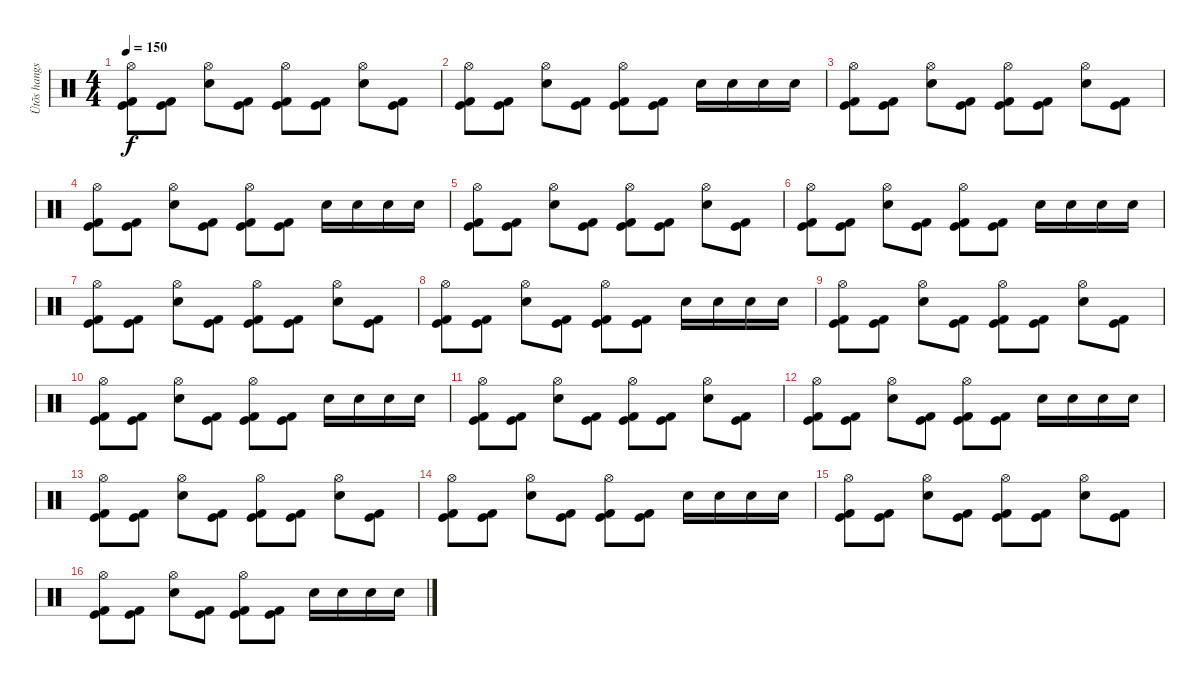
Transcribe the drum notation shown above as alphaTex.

\track ("Ütõs hangszer" "Ütõs hangs") {instrument percussion}
\staff {score}
\articulation defaults
\ts (4 4)
\tempo 150
\clef neutral
\ks c
("Hi-Hat (open)" "Kick (hit)" "Kick (hit) 2").8{dy f} ("Kick (hit)" "Kick (hit) 2").8 ("Hi-Hat (open)" "Electric Snare (hit)").8 ("Kick (hit)" "Kick (hit) 2").8 ("Hi-Hat (open)" "Kick (hit)" "Kick (hit) 2").8 ("Kick (hit)" "Kick (hit) 2").8 ("Hi-Hat (open)" "Electric Snare (hit)").8 ("Kick (hit)" "Kick (hit) 2").8 |
("Hi-Hat (open)" "Kick (hit)" "Kick (hit) 2").8 ("Kick (hit)" "Kick (hit) 2").8 ("Hi-Hat (open)" "Electric Snare (hit)").8 ("Kick (hit)" "Kick (hit) 2").8 ("Hi-Hat (open)" "Kick (hit)" "Kick (hit) 2").8 ("Kick (hit)" "Kick (hit) 2").8 "Electric Snare (hit)".16 "Electric Snare (hit)".16 "Electric Snare (hit)".16 "Electric Snare (hit)".16 |
("Hi-Hat (open)" "Kick (hit)" "Kick (hit) 2").8 ("Kick (hit)" "Kick (hit) 2").8 ("Hi-Hat (open)" "Electric Snare (hit)").8 ("Kick (hit)" "Kick (hit) 2").8 ("Hi-Hat (open)" "Kick (hit)" "Kick (hit) 2").8 ("Kick (hit)" "Kick (hit) 2").8 ("Hi-Hat (open)" "Electric Snare (hit)").8 ("Kick (hit)" "Kick (hit) 2").8 |
("Hi-Hat (open)" "Kick (hit)" "Kick (hit) 2").8 ("Kick (hit)" "Kick (hit) 2").8 ("Hi-Hat (open)" "Electric Snare (hit)").8 ("Kick (hit)" "Kick (hit) 2").8 ("Hi-Hat (open)" "Kick (hit)" "Kick (hit) 2").8 ("Kick (hit)" "Kick (hit) 2").8 "Electric Snare (hit)".16 "Electric Snare (hit)".16 "Electric Snare (hit)".16 "Electric Snare (hit)".16 |
("Hi-Hat (open)" "Kick (hit)" "Kick (hit) 2").8 ("Kick (hit)" "Kick (hit) 2").8 ("Hi-Hat (open)" "Electric Snare (hit)").8 ("Kick (hit)" "Kick (hit) 2").8 ("Hi-Hat (open)" "Kick (hit)" "Kick (hit) 2").8 ("Kick (hit)" "Kick (hit) 2").8 ("Hi-Hat (open)" "Electric Snare (hit)").8 ("Kick (hit)" "Kick (hit) 2").8 |
("Hi-Hat (open)" "Kick (hit)" "Kick (hit) 2").8 ("Kick (hit)" "Kick (hit) 2").8 ("Hi-Hat (open)" "Electric Snare (hit)").8 ("Kick (hit)" "Kick (hit) 2").8 ("Hi-Hat (open)" "Kick (hit)" "Kick (hit) 2").8 ("Kick (hit)" "Kick (hit) 2").8 "Electric Snare (hit)".16 "Electric Snare (hit)".16 "Electric Snare (hit)".16 "Electric Snare (hit)".16 |
("Hi-Hat (open)" "Kick (hit)" "Kick (hit) 2").8 ("Kick (hit)" "Kick (hit) 2").8 ("Hi-Hat (open)" "Electric Snare (hit)").8 ("Kick (hit)" "Kick (hit) 2").8 ("Hi-Hat (open)" "Kick (hit)" "Kick (hit) 2").8 ("Kick (hit)" "Kick (hit) 2").8 ("Hi-Hat (open)" "Electric Snare (hit)").8 ("Kick (hit)" "Kick (hit) 2").8 |
("Hi-Hat (open)" "Kick (hit)" "Kick (hit) 2").8 ("Kick (hit)" "Kick (hit) 2").8 ("Hi-Hat (open)" "Electric Snare (hit)").8 ("Kick (hit)" "Kick (hit) 2").8 ("Hi-Hat (open)" "Kick (hit)" "Kick (hit) 2").8 ("Kick (hit)" "Kick (hit) 2").8 "Electric Snare (hit)".16 "Electric Snare (hit)".16 "Electric Snare (hit)".16 "Electric Snare (hit)".16 |
("Hi-Hat (open)" "Kick (hit)" "Kick (hit) 2").8 ("Kick (hit)" "Kick (hit) 2").8 ("Hi-Hat (open)" "Electric Snare (hit)").8 ("Kick (hit)" "Kick (hit) 2").8 ("Hi-Hat (open)" "Kick (hit)" "Kick (hit) 2").8 ("Kick (hit)" "Kick (hit) 2").8 ("Hi-Hat (open)" "Electric Snare (hit)").8 ("Kick (hit)" "Kick (hit) 2").8 |
("Hi-Hat (open)" "Kick (hit)" "Kick (hit) 2").8 ("Kick (hit)" "Kick (hit) 2").8 ("Hi-Hat (open)" "Electric Snare (hit)").8 ("Kick (hit)" "Kick (hit) 2").8 ("Hi-Hat (open)" "Kick (hit)" "Kick (hit) 2").8 ("Kick (hit)" "Kick (hit) 2").8 "Electric Snare (hit)".16 "Electric Snare (hit)".16 "Electric Snare (hit)".16 "Electric Snare (hit)".16 |
("Hi-Hat (open)" "Kick (hit)" "Kick (hit) 2").8 ("Kick (hit)" "Kick (hit) 2").8 ("Hi-Hat (open)" "Electric Snare (hit)").8 ("Kick (hit)" "Kick (hit) 2").8 ("Hi-Hat (open)" "Kick (hit)" "Kick (hit) 2").8 ("Kick (hit)" "Kick (hit) 2").8 ("Hi-Hat (open)" "Electric Snare (hit)").8 ("Kick (hit)" "Kick (hit) 2").8 |
("Hi-Hat (open)" "Kick (hit)" "Kick (hit) 2").8 ("Kick (hit)" "Kick (hit) 2").8 ("Hi-Hat (open)" "Electric Snare (hit)").8 ("Kick (hit)" "Kick (hit) 2").8 ("Hi-Hat (open)" "Kick (hit)" "Kick (hit) 2").8 ("Kick (hit)" "Kick (hit) 2").8 "Electric Snare (hit)".16 "Electric Snare (hit)".16 "Electric Snare (hit)".16 "Electric Snare (hit)".16 |
("Hi-Hat (open)" "Kick (hit)" "Kick (hit) 2").8 ("Kick (hit)" "Kick (hit) 2").8 ("Hi-Hat (open)" "Electric Snare (hit)").8 ("Kick (hit)" "Kick (hit) 2").8 ("Hi-Hat (open)" "Kick (hit)" "Kick (hit) 2").8 ("Kick (hit)" "Kick (hit) 2").8 ("Hi-Hat (open)" "Electric Snare (hit)").8 ("Kick (hit)" "Kick (hit) 2").8 |
("Hi-Hat (open)" "Kick (hit)" "Kick (hit) 2").8 ("Kick (hit)" "Kick (hit) 2").8 ("Hi-Hat (open)" "Electric Snare (hit)").8 ("Kick (hit)" "Kick (hit) 2").8 ("Hi-Hat (open)" "Kick (hit)" "Kick (hit) 2").8 ("Kick (hit)" "Kick (hit) 2").8 "Electric Snare (hit)".16 "Electric Snare (hit)".16 "Electric Snare (hit)".16 "Electric Snare (hit)".16 |
("Hi-Hat (open)" "Kick (hit)" "Kick (hit) 2").8 ("Kick (hit)" "Kick (hit) 2").8 ("Hi-Hat (open)" "Electric Snare (hit)").8 ("Kick (hit)" "Kick (hit) 2").8 ("Hi-Hat (open)" "Kick (hit)" "Kick (hit) 2").8 ("Kick (hit)" "Kick (hit) 2").8 ("Hi-Hat (open)" "Electric Snare (hit)").8 ("Kick (hit)" "Kick (hit) 2").8 |
("Hi-Hat (open)" "Kick (hit)" "Kick (hit) 2").8 ("Kick (hit)" "Kick (hit) 2").8 ("Hi-Hat (open)" "Electric Snare (hit)").8 ("Kick (hit)" "Kick (hit) 2").8 ("Hi-Hat (open)" "Kick (hit)" "Kick (hit) 2").8 ("Kick (hit)" "Kick (hit) 2").8 "Electric Snare (hit)".16 "Electric Snare (hit)".16 "Electric Snare (hit)".16 "Electric Snare (hit)".16
